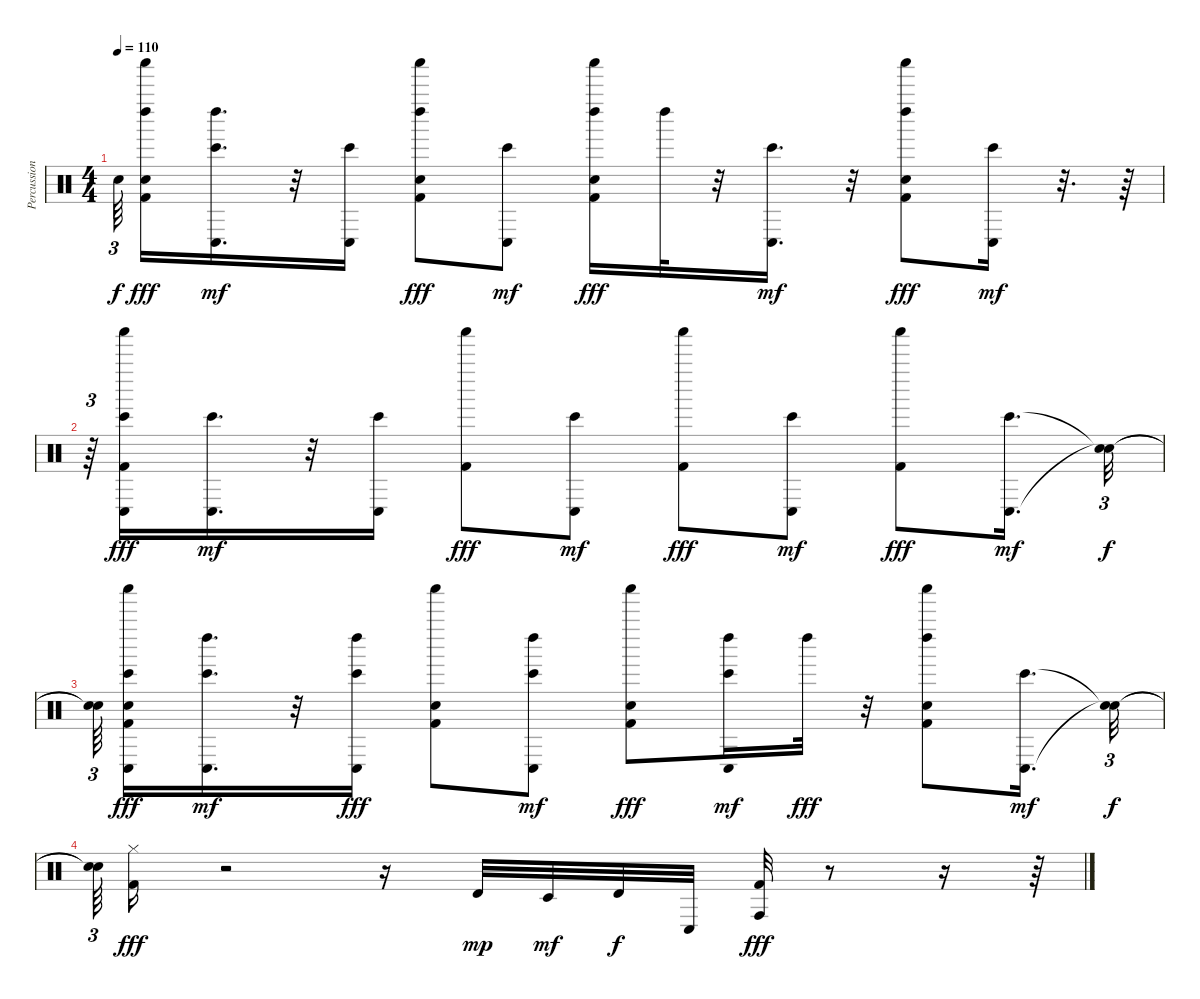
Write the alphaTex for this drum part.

\track ("Percussion" "Percussion") {instrument percussion}
\staff {score}
\articulation defaults
\ts (4 4)
\tempo 110
\clef neutral
\ks c "Snare (hit)"{t}.64{tu (3 2) dy f beam splitsecondary}
("Shaker (hit)" "Hand Clap (hit)" "Left Maraca (hit)" "Kick (hit) 2").16{dy fff} ("Conga low (hit)" "Left Maraca (hit)" "Bongo High (hit)").16{d dy mf} r.32 ("Conga low (hit)" "Bongo High (hit)").16 ("Kick (hit) 2" "Left Maraca (hit)" "Hand Clap (hit)" "Shaker (hit)").8{dy fff} ("Bongo High (hit)" "Conga low (hit)").8{dy mf} ("Left Maraca (hit)" "Kick (hit) 2" "Hand Clap (hit)" "Shaker (hit)").16{dy fff} "Left Maraca (hit)".32 r.32 ("Bongo High (hit)" "Conga low (hit)").16{d dy mf} r.32 ("Shaker (hit)" "Kick (hit) 2" "Left Maraca (hit)" "Hand Clap (hit)").8{dy fff} ("Conga low (hit)" "Bongo High (hit)").16{dy mf} r.32{d} r.64 |
r.64{tu (3 2)} ("Kick (hit) 2" "Bongo High (hit)" "Conga low (hit)" "Shaker (hit)").16{dy fff} ("Bongo High (hit)" "Conga low (hit)").16{d dy mf} r.32 ("Bongo High (hit)" "Conga low (hit)").16 ("Shaker (hit)" "Kick (hit) 2").8{dy fff} ("Conga low (hit)" "Bongo High (hit)").8{dy mf} ("Kick (hit) 2" "Shaker (hit)").8{dy fff} ("Conga low (hit)" "Bongo High (hit)").8{dy mf} ("Shaker (hit)" "Kick (hit) 2").8{dy fff} ("Bongo High (hit)" "Conga low (hit)").16{d dy mf} ("Snare (hit)"{t} "Snare (hit)"{t}).32{tu (3 2) dy f} |
("Snare (hit)"{t} "Snare (hit)"{t}).64{tu (3 2) beam splitsecondary} ("Shaker (hit)" "Conga low (hit)" "Kick (hit) 2" "Bongo High (hit)" "Hand Clap (hit)").16{dy fff} ("Left Maraca (hit)" "Bongo High (hit)" "Conga low (hit)").16{d dy mf} r.32 ("Conga low (hit)" "Bongo High (hit)" "Left Maraca (hit)").16{dy fff} ("Kick (hit) 2" "Shaker (hit)" "Hand Clap (hit)").8 ("Left Maraca (hit)" "Conga low (hit)" "Bongo High (hit)").8{dy mf} ("Kick (hit) 2" "Hand Clap (hit)" "Shaker (hit)").8{dy fff} ("Left Maraca (hit)" "Conga low (hit)" "Bongo High (hit)").16{dy mf} "Left Maraca (hit)".32{dy fff} r.32 ("Hand Clap (hit)" "Shaker (hit)" "Left Maraca (hit)" "Kick (hit) 2").8 ("Conga low (hit)" "Bongo High (hit)").16{d dy mf} ("Snare (hit)"{t} "Snare (hit)"{t}).32{tu (3 2) dy f} |
("Snare (hit)"{t} "Snare (hit)"{t}).64{tu (3 2)} ("Hi-Hat (closed)" "Kick (hit) 2").16{dy fff} r.2 r.16 "Timbale high (hit)".32{dy mp} "Timbale low (hit)".32{dy mf} "Timbale high (hit)".32{dy f} "Conga low (hit)".32 ("Kick (hit) 2" "Conga high (hit)").32{dy fff} r.8 r.16 r.64
